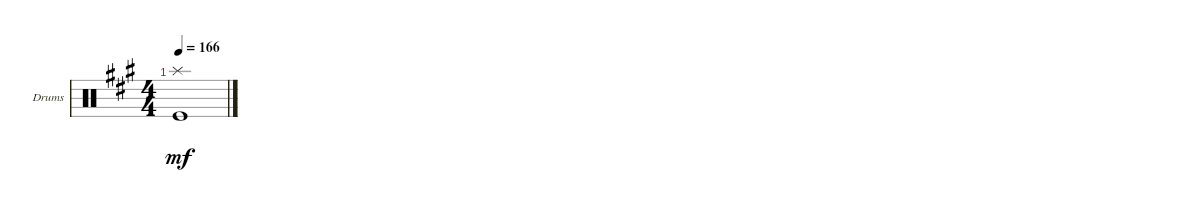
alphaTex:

\defaultSystemsLayout 4
\bracketExtendMode groupsimilarinstruments
\firstSystemTrackNameOrientation horizontal
\otherSystemsTrackNameOrientation horizontal
\track ("Drumkit" "Drums") {instrument percussion}
\staff {score}
\articulation defaults
\ts (4 4)
\tempo 166
\clef neutral
\ks a
("Kick (hit)" "Splash (hit)").1{dy mf}
